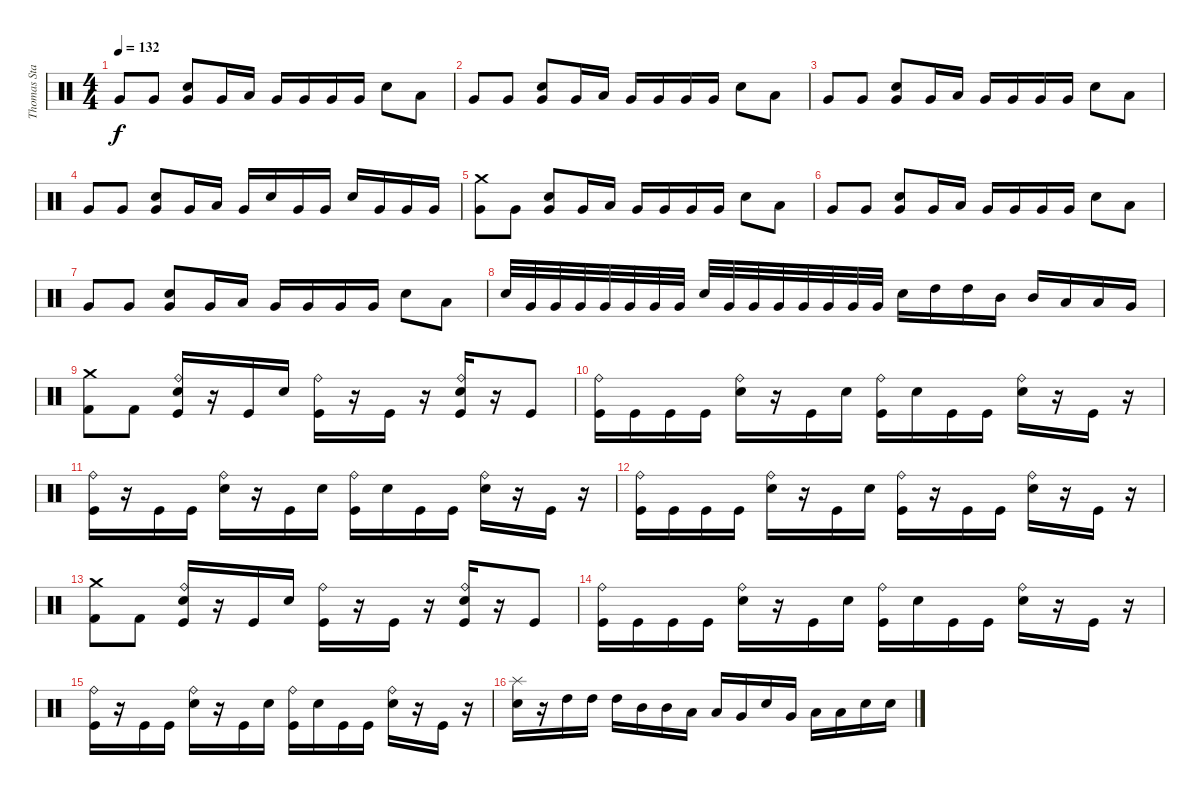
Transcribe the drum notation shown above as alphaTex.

\track ("Thomas Stauch" "Thomas Sta") {instrument percussion}
\staff {score}
\articulation defaults
\ts (4 4)
\tempo 132
\clef neutral
\ks c "Very Low Tom (hit)".8{dy f} "Very Low Tom (hit)".8
("Electric Snare (hit)" "Very Low Tom (hit)").8 "Very Low Tom (hit)".16 "Low Tom (hit)".16 "Very Low Tom (hit)".16 "Very Low Tom (hit)".16 "Very Low Tom (hit)".16 "Very Low Tom (hit)".16 "Electric Snare (hit)".8 "Low Floor Tom (hit)".8 |
"Very Low Tom (hit)".8 "Very Low Tom (hit)".8 ("Electric Snare (hit)" "Very Low Tom (hit)").8 "Very Low Tom (hit)".16 "Low Tom (hit)".16 "Very Low Tom (hit)".16 "Very Low Tom (hit)".16 "Very Low Tom (hit)".16 "Very Low Tom (hit)".16 "Electric Snare (hit)".8 "Low Floor Tom (hit)".8 |
"Very Low Tom (hit)".8 "Very Low Tom (hit)".8 ("Electric Snare (hit)" "Very Low Tom (hit)").8 "Very Low Tom (hit)".16 "Low Tom (hit)".16 "Very Low Tom (hit)".16 "Very Low Tom (hit)".16 "Very Low Tom (hit)".16 "Very Low Tom (hit)".16 "Electric Snare (hit)".8 "Low Floor Tom (hit)".8 |
"Very Low Tom (hit)".8 "Very Low Tom (hit)".8 ("Electric Snare (hit)" "Very Low Tom (hit)").8 "Very Low Tom (hit)".16 "Low Tom (hit)".16 "Very Low Tom (hit)".16 "Electric Snare (hit)".16 "Very Low Tom (hit)".16 "Very Low Tom (hit)".16 "Electric Snare (hit)".16 "Very Low Tom (hit)".16 "Very Low Tom (hit)".16 "Very Low Tom (hit)".16 |
("Crash medium (hit)" "Very Low Tom (hit)").8 "Very Low Tom (hit)".8 ("Electric Snare (hit)" "Very Low Tom (hit)").8 "Very Low Tom (hit)".16 "Low Tom (hit)".16 "Very Low Tom (hit)".16 "Very Low Tom (hit)".16 "Very Low Tom (hit)".16 "Very Low Tom (hit)".16 "Electric Snare (hit)".8 "Low Floor Tom (hit)".8 |
"Very Low Tom (hit)".8 "Very Low Tom (hit)".8 ("Electric Snare (hit)" "Very Low Tom (hit)").8 "Very Low Tom (hit)".16 "Low Tom (hit)".16 "Very Low Tom (hit)".16 "Very Low Tom (hit)".16 "Very Low Tom (hit)".16 "Very Low Tom (hit)".16 "Electric Snare (hit)".8 "Low Floor Tom (hit)".8 |
"Very Low Tom (hit)".8 "Very Low Tom (hit)".8 ("Electric Snare (hit)" "Very Low Tom (hit)").8 "Very Low Tom (hit)".16 "Low Tom (hit)".16 "Very Low Tom (hit)".16 "Very Low Tom (hit)".16 "Very Low Tom (hit)".16 "Very Low Tom (hit)".16 "Electric Snare (hit)".8 "Low Floor Tom (hit)".8 |
"Electric Snare (hit)".32 "Very Low Tom (hit)".32 "Very Low Tom (hit)".32 "Very Low Tom (hit)".32 "Very Low Tom (hit)".32 "Very Low Tom (hit)".32 "Very Low Tom (hit)".32 "Very Low Tom (hit)".32 "Electric Snare (hit)".32 "Very Low Tom (hit)".32 "Very Low Tom (hit)".32 "Very Low Tom (hit)".32 "Very Low Tom (hit)".32 "Very Low Tom (hit)".32 "Very Low Tom (hit)".32 "Very Low Tom (hit)".32 "Electric Snare (hit)".16 "High Tom (hit)".16 "High Tom (hit)".16 "Mid Tom (hit)".16 "Mid Tom (hit)".16 "Low Tom (hit)".16 "Low Tom (hit)".16 "Very Low Tom (hit)".16 |
("Crash medium (hit)" "Kick (hit) 2").8 "Kick (hit) 2".8 ("Ride (bell)" "Electric Snare (hit)" "Kick (hit)").16 r.16 "Kick (hit)".16 "Electric Snare (hit)".16 ("Ride (bell)" "Kick (hit)").16 r.16 "Kick (hit)".16 r.16 ("Ride (bell)" "Electric Snare (hit)" "Kick (hit)").16 r.16 "Kick (hit)".8 |
("Ride (bell)" "Kick (hit)").16 "Kick (hit)".16 "Kick (hit)".16 "Kick (hit)".16 ("Ride (bell)" "Electric Snare (hit)").16 r.16 "Kick (hit)".16 "Electric Snare (hit)".16 ("Ride (bell)" "Kick (hit)").16 "Electric Snare (hit)".16 "Kick (hit)".16 "Kick (hit)".16 ("Ride (bell)" "Electric Snare (hit)").16 r.16 "Kick (hit)".16 r.16 |
("Ride (bell)" "Kick (hit)").16 r.16 "Kick (hit)".16 "Kick (hit)".16 ("Ride (bell)" "Electric Snare (hit)").16 r.16 "Kick (hit)".16 "Electric Snare (hit)".16 ("Ride (bell)" "Kick (hit)").16 "Electric Snare (hit)".16 "Kick (hit)".16 "Kick (hit)".16 ("Ride (bell)" "Electric Snare (hit)").16 r.16 "Kick (hit)".16 r.16 |
("Ride (bell)" "Kick (hit)").16 "Kick (hit)".16 "Kick (hit)".16 "Kick (hit)".16 ("Ride (bell)" "Electric Snare (hit)").16 r.16 "Kick (hit)".16 "Electric Snare (hit)".16 ("Ride (bell)" "Kick (hit)").16 r.16 "Kick (hit)".16 "Kick (hit)".16 ("Ride (bell)" "Electric Snare (hit)").16 r.16 "Kick (hit)".16 r.16 |
("Crash medium (hit)" "Kick (hit) 2").8 "Kick (hit) 2".8 ("Ride (bell)" "Electric Snare (hit)" "Kick (hit)").16 r.16 "Kick (hit)".16 "Electric Snare (hit)".16 ("Ride (bell)" "Kick (hit)").16 r.16 "Kick (hit)".16 r.16 ("Ride (bell)" "Electric Snare (hit)" "Kick (hit)").16 r.16 "Kick (hit)".8 |
("Ride (bell)" "Kick (hit)").16 "Kick (hit)".16 "Kick (hit)".16 "Kick (hit)".16 ("Ride (bell)" "Electric Snare (hit)").16 r.16 "Kick (hit)".16 "Electric Snare (hit)".16 ("Ride (bell)" "Kick (hit)").16 "Electric Snare (hit)".16 "Kick (hit)".16 "Kick (hit)".16 ("Ride (bell)" "Electric Snare (hit)").16 r.16 "Kick (hit)".16 r.16 |
("Ride (bell)" "Kick (hit)").16 r.16 "Kick (hit)".16 "Kick (hit)".16 ("Ride (bell)" "Electric Snare (hit)").16 r.16 "Kick (hit)".16 "Electric Snare (hit)".16 ("Ride (bell)" "Kick (hit)").16 "Electric Snare (hit)".16 "Kick (hit)".16 "Kick (hit)".16 ("Ride (bell)" "Electric Snare (hit)").16 r.16 "Kick (hit)".16 r.16 |
("Splash (hit)" "Electric Snare (hit)").16 r.16 "High Tom (hit)".16 "High Tom (hit)".16 "High Tom (hit)".16 "Mid Tom (hit)".16 "Mid Tom (hit)".16 "Low Tom (hit)".16 "Low Tom (hit)".16 "Very Low Tom (hit)".16 "Electric Snare (hit)".16 "Very Low Tom (hit)".16 "Low Floor Tom (hit)".16 "Low Floor Tom (hit)".16 "Electric Snare (hit)".16 "Electric Snare (hit)".16
